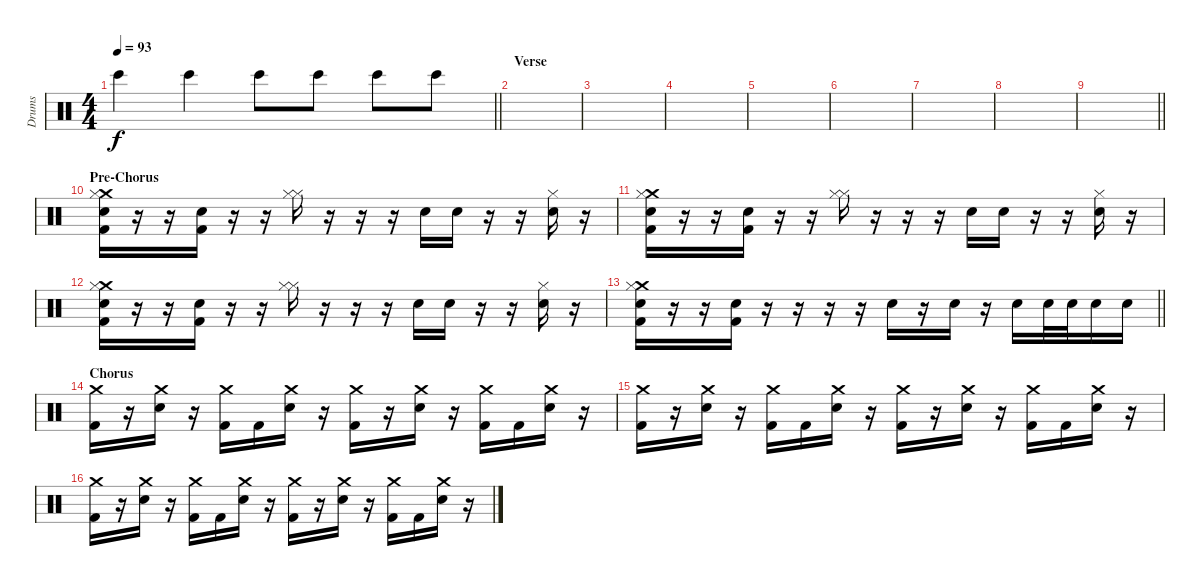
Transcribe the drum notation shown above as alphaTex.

\track ("Drums" "Drums") {instrument percussion}
\staff {score}
\articulation defaults
\ts (4 4)
\tempo 93
\clef neutral
\barLineRight lightlight
\ks c "Bongo High (hit)".4{dy f} "Bongo High (hit)".4 "Bongo High (hit)".8 "Bongo High (hit)".8 "Bongo High (hit)".8 "Bongo High (hit)".8
|
\section ("" "Verse")
|
|
|
|
|
|
|
\barLineRight lightlight
|
\section ("" "Pre-Chorus")
("Crash medium (hit)" "Hi-Hat (closed)" "Electric Snare (hit)" "Kick (hit) 2").16 r.16 r.16 ("Electric Snare (hit)" "Kick (hit) 2").16 r.16 r.16 ("Hi-Hat (closed)" "Hi-Hat (closed)").16 r.16 r.16 r.16 "Hand Clap (hit)".16 "Hand Clap (hit)".16 r.16 r.16 ("Hi-Hat (closed)" "Hand Clap (hit)").16 r.16 |
("Crash medium (hit)" "Hi-Hat (closed)" "Electric Snare (hit)" "Kick (hit) 2").16 r.16 r.16 ("Electric Snare (hit)" "Kick (hit) 2").16 r.16 r.16 ("Hi-Hat (closed)" "Hi-Hat (closed)").16 r.16 r.16 r.16 "Hand Clap (hit)".16 "Hand Clap (hit)".16 r.16 r.16 ("Hi-Hat (closed)" "Hand Clap (hit)").16 r.16 |
("Crash medium (hit)" "Hi-Hat (closed)" "Electric Snare (hit)" "Kick (hit) 2").16 r.16 r.16 ("Electric Snare (hit)" "Kick (hit) 2").16 r.16 r.16 ("Hi-Hat (closed)" "Hi-Hat (closed)").16 r.16 r.16 r.16 "Hand Clap (hit)".16 "Hand Clap (hit)".16 r.16 r.16 ("Hi-Hat (closed)" "Hand Clap (hit)").16 r.16 |
\barLineRight lightlight
("Crash medium (hit)" "Hi-Hat (closed)" "Electric Snare (hit)" "Kick (hit) 2").16 r.16 r.16 ("Electric Snare (hit)" "Kick (hit) 2").16 r.16 r.16 r.16 r.16 "Electric Snare (hit)".16 r.16 "Electric Snare (hit)".16 r.16 "Electric Snare (hit)".16 "Electric Snare (hit)".32 "Electric Snare (hit)".32 "Electric Snare (hit)".16 "Electric Snare (hit)".16 |
\section ("" "Chorus")
("Crash medium (hit)" "Kick (hit) 2").16 r.16 ("Crash medium (hit)" "Electric Snare (hit)").16 r.16 ("Crash medium (hit)" "Kick (hit) 2").16 "Kick (hit) 2".16 ("Crash medium (hit)" "Electric Snare (hit)").16 r.16 ("Crash medium (hit)" "Kick (hit) 2").16 r.16 ("Crash medium (hit)" "Electric Snare (hit)").16 r.16 ("Crash medium (hit)" "Kick (hit) 2").16 "Kick (hit) 2".16 ("Crash medium (hit)" "Electric Snare (hit)").16 r.16 |
("Crash medium (hit)" "Kick (hit) 2").16 r.16 ("Crash medium (hit)" "Electric Snare (hit)").16 r.16 ("Crash medium (hit)" "Kick (hit) 2").16 "Kick (hit) 2".16 ("Crash medium (hit)" "Electric Snare (hit)").16 r.16 ("Crash medium (hit)" "Kick (hit) 2").16 r.16 ("Crash medium (hit)" "Electric Snare (hit)").16 r.16 ("Crash medium (hit)" "Kick (hit) 2").16 "Kick (hit) 2".16 ("Crash medium (hit)" "Electric Snare (hit)").16 r.16 |
("Crash medium (hit)" "Kick (hit) 2").16 r.16 ("Crash medium (hit)" "Electric Snare (hit)").16 r.16 ("Crash medium (hit)" "Kick (hit) 2").16 "Kick (hit) 2".16 ("Crash medium (hit)" "Electric Snare (hit)").16 r.16 ("Crash medium (hit)" "Kick (hit) 2").16 r.16 ("Crash medium (hit)" "Electric Snare (hit)").16 r.16 ("Crash medium (hit)" "Kick (hit) 2").16 "Kick (hit) 2".16 ("Crash medium (hit)" "Electric Snare (hit)").16 r.16
